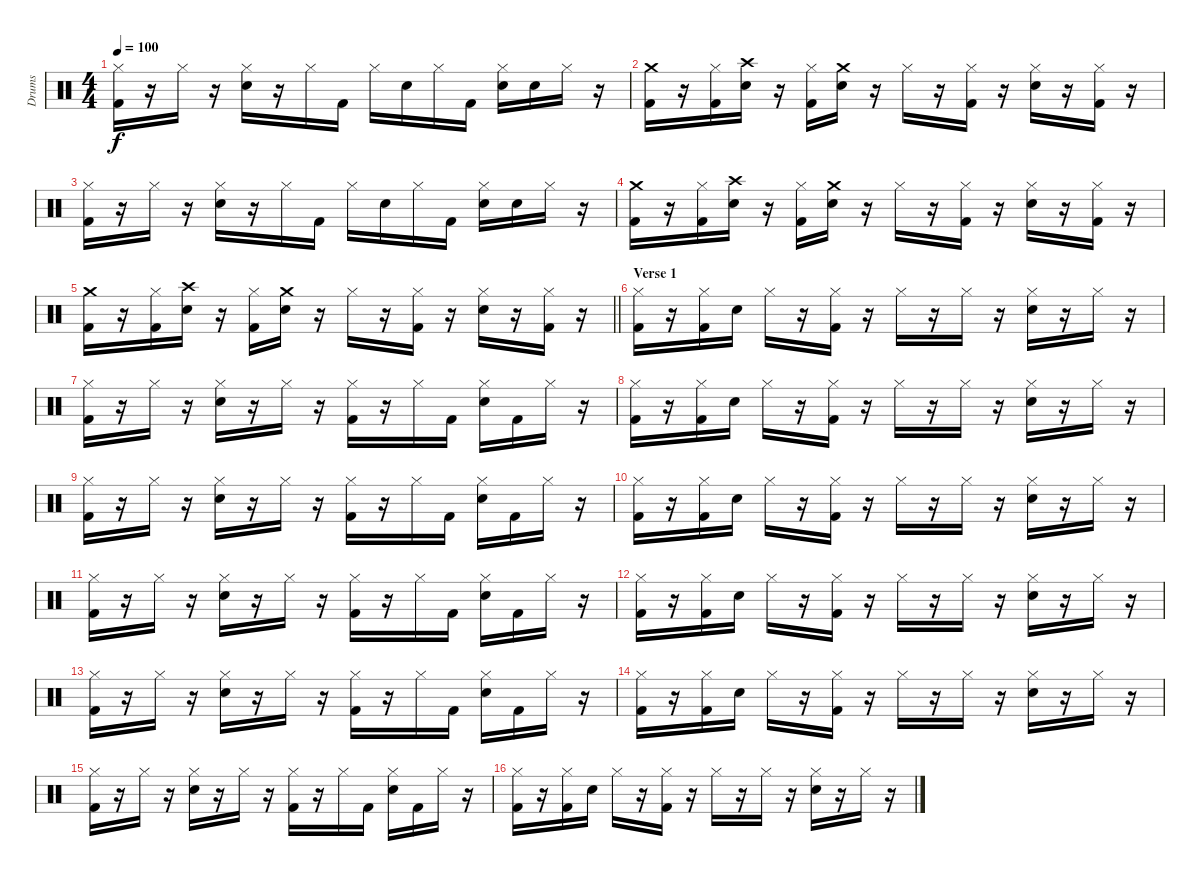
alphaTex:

\track ("Drums" "Drums") {instrument percussion}
\staff {score}
\articulation defaults
\ts (4 4)
\tempo 100
\clef neutral
\ks c
("Hi-Hat (closed)" "Kick (hit) 2").16{dy f} r.16 "Hi-Hat (closed)".16 r.16 ("Hi-Hat (closed)" "Snare (hit) 2").16 r.16 "Hi-Hat (closed)".16 "Kick (hit) 2".16 "Hi-Hat (closed)".16 "Snare (hit) 2".16 "Hi-Hat (closed)".16 "Kick (hit) 2".16 ("Hi-Hat (closed)" "Snare (hit) 2").16 "Snare (hit) 2".16 "Hi-Hat (closed)".16 r.16 |
("Crash medium (hit)" "Kick (hit) 2").16 r.16 ("Hi-Hat (closed)" "Kick (hit) 2").16 ("Crash high (hit)" "Snare (hit) 2").16 r.16 ("Hi-Hat (closed)" "Kick (hit) 2").16 ("Crash medium (hit)" "Snare (hit) 2").16 r.16 "Hi-Hat (closed)".16 r.16 ("Hi-Hat (closed)" "Kick (hit) 2").16 r.16 ("Hi-Hat (closed)" "Snare (hit) 2").16 r.16 ("Hi-Hat (closed)" "Kick (hit) 2").16 r.16 |
("Hi-Hat (closed)" "Kick (hit) 2").16 r.16 "Hi-Hat (closed)".16 r.16 ("Hi-Hat (closed)" "Snare (hit) 2").16 r.16 "Hi-Hat (closed)".16 "Kick (hit) 2".16 "Hi-Hat (closed)".16 "Snare (hit) 2".16 "Hi-Hat (closed)".16 "Kick (hit) 2".16 ("Hi-Hat (closed)" "Snare (hit) 2").16 "Snare (hit) 2".16 "Hi-Hat (closed)".16 r.16 |
("Crash medium (hit)" "Kick (hit) 2").16 r.16 ("Hi-Hat (closed)" "Kick (hit) 2").16 ("Crash high (hit)" "Snare (hit) 2").16 r.16 ("Hi-Hat (closed)" "Kick (hit) 2").16 ("Crash medium (hit)" "Snare (hit) 2").16 r.16 "Hi-Hat (closed)".16 r.16 ("Hi-Hat (closed)" "Kick (hit) 2").16 r.16 ("Hi-Hat (closed)" "Snare (hit) 2").16 r.16 ("Hi-Hat (closed)" "Kick (hit) 2").16 r.16 |
\barLineRight lightlight
("Crash medium (hit)" "Kick (hit) 2").16 r.16 ("Hi-Hat (closed)" "Kick (hit) 2").16 ("Crash high (hit)" "Snare (hit) 2").16 r.16 ("Hi-Hat (closed)" "Kick (hit) 2").16 ("Crash medium (hit)" "Snare (hit) 2").16 r.16 "Hi-Hat (closed)".16 r.16 ("Hi-Hat (closed)" "Kick (hit) 2").16 r.16 ("Hi-Hat (closed)" "Snare (hit) 2").16 r.16 ("Hi-Hat (closed)" "Kick (hit) 2").16 r.16 |
\section ("" "Verse 1")
("Hi-Hat (closed)" "Kick (hit) 2").16 r.16 ("Hi-Hat (closed)" "Kick (hit) 2").16 "Snare (hit) 2".16 "Hi-Hat (closed)".16 r.16 ("Hi-Hat (closed)" "Kick (hit) 2").16 r.16 "Hi-Hat (closed)".16 r.16 "Hi-Hat (closed)".16 r.16 ("Hi-Hat (closed)" "Snare (hit) 2").16 r.16 "Hi-Hat (closed)".16 r.16 |
("Hi-Hat (closed)" "Kick (hit) 2").16 r.16 "Hi-Hat (closed)".16 r.16 ("Hi-Hat (closed)" "Snare (hit) 2").16 r.16 "Hi-Hat (closed)".16 r.16 ("Hi-Hat (closed)" "Kick (hit) 2").16 r.16 "Hi-Hat (closed)".16 "Kick (hit) 2".16 ("Hi-Hat (closed)" "Snare (hit) 2").16 "Kick (hit) 2".16 "Hi-Hat (closed)".16 r.16 |
("Hi-Hat (closed)" "Kick (hit) 2").16 r.16 ("Hi-Hat (closed)" "Kick (hit) 2").16 "Snare (hit) 2".16 "Hi-Hat (closed)".16 r.16 ("Hi-Hat (closed)" "Kick (hit) 2").16 r.16 "Hi-Hat (closed)".16 r.16 "Hi-Hat (closed)".16 r.16 ("Hi-Hat (closed)" "Snare (hit) 2").16 r.16 "Hi-Hat (closed)".16 r.16 |
("Hi-Hat (closed)" "Kick (hit) 2").16 r.16 "Hi-Hat (closed)".16 r.16 ("Hi-Hat (closed)" "Snare (hit) 2").16 r.16 "Hi-Hat (closed)".16 r.16 ("Hi-Hat (closed)" "Kick (hit) 2").16 r.16 "Hi-Hat (closed)".16 "Kick (hit) 2".16 ("Hi-Hat (closed)" "Snare (hit) 2").16 "Kick (hit) 2".16 "Hi-Hat (closed)".16 r.16 |
("Hi-Hat (closed)" "Kick (hit) 2").16 r.16 ("Hi-Hat (closed)" "Kick (hit) 2").16 "Snare (hit) 2".16 "Hi-Hat (closed)".16 r.16 ("Hi-Hat (closed)" "Kick (hit) 2").16 r.16 "Hi-Hat (closed)".16 r.16 "Hi-Hat (closed)".16 r.16 ("Hi-Hat (closed)" "Snare (hit) 2").16 r.16 "Hi-Hat (closed)".16 r.16 |
("Hi-Hat (closed)" "Kick (hit) 2").16 r.16 "Hi-Hat (closed)".16 r.16 ("Hi-Hat (closed)" "Snare (hit) 2").16 r.16 "Hi-Hat (closed)".16 r.16 ("Hi-Hat (closed)" "Kick (hit) 2").16 r.16 "Hi-Hat (closed)".16 "Kick (hit) 2".16 ("Hi-Hat (closed)" "Snare (hit) 2").16 "Kick (hit) 2".16 "Hi-Hat (closed)".16 r.16 |
("Hi-Hat (closed)" "Kick (hit) 2").16 r.16 ("Hi-Hat (closed)" "Kick (hit) 2").16 "Snare (hit) 2".16 "Hi-Hat (closed)".16 r.16 ("Hi-Hat (closed)" "Kick (hit) 2").16 r.16 "Hi-Hat (closed)".16 r.16 "Hi-Hat (closed)".16 r.16 ("Hi-Hat (closed)" "Snare (hit) 2").16 r.16 "Hi-Hat (closed)".16 r.16 |
("Hi-Hat (closed)" "Kick (hit) 2").16 r.16 "Hi-Hat (closed)".16 r.16 ("Hi-Hat (closed)" "Snare (hit) 2").16 r.16 "Hi-Hat (closed)".16 r.16 ("Hi-Hat (closed)" "Kick (hit) 2").16 r.16 "Hi-Hat (closed)".16 "Kick (hit) 2".16 ("Hi-Hat (closed)" "Snare (hit) 2").16 "Kick (hit) 2".16 "Hi-Hat (closed)".16 r.16 |
("Hi-Hat (closed)" "Kick (hit) 2").16 r.16 ("Hi-Hat (closed)" "Kick (hit) 2").16 "Snare (hit) 2".16 "Hi-Hat (closed)".16 r.16 ("Hi-Hat (closed)" "Kick (hit) 2").16 r.16 "Hi-Hat (closed)".16 r.16 "Hi-Hat (closed)".16 r.16 ("Hi-Hat (closed)" "Snare (hit) 2").16 r.16 "Hi-Hat (closed)".16 r.16 |
("Hi-Hat (closed)" "Kick (hit) 2").16 r.16 "Hi-Hat (closed)".16 r.16 ("Hi-Hat (closed)" "Snare (hit) 2").16 r.16 "Hi-Hat (closed)".16 r.16 ("Hi-Hat (closed)" "Kick (hit) 2").16 r.16 "Hi-Hat (closed)".16 "Kick (hit) 2".16 ("Hi-Hat (closed)" "Snare (hit) 2").16 "Kick (hit) 2".16 "Hi-Hat (closed)".16 r.16 |
("Hi-Hat (closed)" "Kick (hit) 2").16 r.16 ("Hi-Hat (closed)" "Kick (hit) 2").16 "Snare (hit) 2".16 "Hi-Hat (closed)".16 r.16 ("Hi-Hat (closed)" "Kick (hit) 2").16 r.16 "Hi-Hat (closed)".16 r.16 "Hi-Hat (closed)".16 r.16 ("Hi-Hat (closed)" "Snare (hit) 2").16 r.16 "Hi-Hat (closed)".16 r.16
